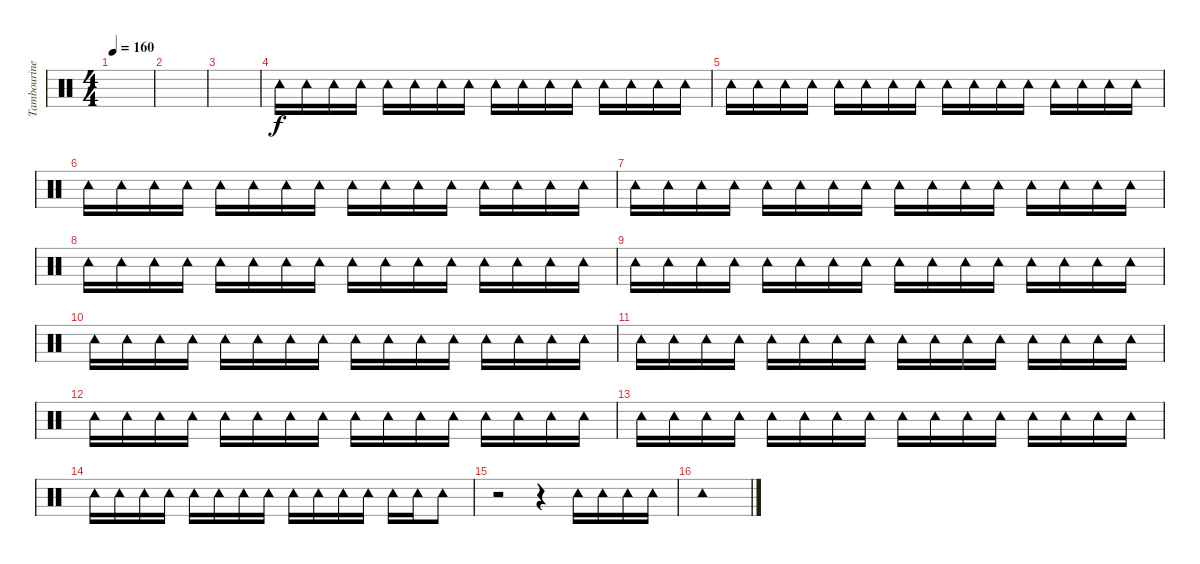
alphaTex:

\track ("Tambourine" "Tambourine") {instrument percussion}
\staff {score}
\articulation defaults
\ts (4 4)
\tempo 160
\clef neutral
\ks c
|
|
|
"Tambourine (hit)".16 "Tambourine (hit)".16 "Tambourine (hit)".16 "Tambourine (hit)".16 "Tambourine (hit)".16 "Tambourine (hit)".16 "Tambourine (hit)".16 "Tambourine (hit)".16 "Tambourine (hit)".16 "Tambourine (hit)".16 "Tambourine (hit)".16 "Tambourine (hit)".16 "Tambourine (hit)".16 "Tambourine (hit)".16 "Tambourine (hit)".16 "Tambourine (hit)".16 |
"Tambourine (hit)".16 "Tambourine (hit)".16 "Tambourine (hit)".16 "Tambourine (hit)".16 "Tambourine (hit)".16 "Tambourine (hit)".16 "Tambourine (hit)".16 "Tambourine (hit)".16 "Tambourine (hit)".16 "Tambourine (hit)".16 "Tambourine (hit)".16 "Tambourine (hit)".16 "Tambourine (hit)".16 "Tambourine (hit)".16 "Tambourine (hit)".16 "Tambourine (hit)".16 |
"Tambourine (hit)".16 "Tambourine (hit)".16 "Tambourine (hit)".16 "Tambourine (hit)".16 "Tambourine (hit)".16 "Tambourine (hit)".16 "Tambourine (hit)".16 "Tambourine (hit)".16 "Tambourine (hit)".16 "Tambourine (hit)".16 "Tambourine (hit)".16 "Tambourine (hit)".16 "Tambourine (hit)".16 "Tambourine (hit)".16 "Tambourine (hit)".16 "Tambourine (hit)".16 |
"Tambourine (hit)".16 "Tambourine (hit)".16 "Tambourine (hit)".16 "Tambourine (hit)".16 "Tambourine (hit)".16 "Tambourine (hit)".16 "Tambourine (hit)".16 "Tambourine (hit)".16 "Tambourine (hit)".16 "Tambourine (hit)".16 "Tambourine (hit)".16 "Tambourine (hit)".16 "Tambourine (hit)".16 "Tambourine (hit)".16 "Tambourine (hit)".16 "Tambourine (hit)".16 |
"Tambourine (hit)".16 "Tambourine (hit)".16 "Tambourine (hit)".16 "Tambourine (hit)".16 "Tambourine (hit)".16 "Tambourine (hit)".16 "Tambourine (hit)".16 "Tambourine (hit)".16 "Tambourine (hit)".16 "Tambourine (hit)".16 "Tambourine (hit)".16 "Tambourine (hit)".16 "Tambourine (hit)".16 "Tambourine (hit)".16 "Tambourine (hit)".16 "Tambourine (hit)".16 |
"Tambourine (hit)".16 "Tambourine (hit)".16 "Tambourine (hit)".16 "Tambourine (hit)".16 "Tambourine (hit)".16 "Tambourine (hit)".16 "Tambourine (hit)".16 "Tambourine (hit)".16 "Tambourine (hit)".16 "Tambourine (hit)".16 "Tambourine (hit)".16 "Tambourine (hit)".16 "Tambourine (hit)".16 "Tambourine (hit)".16 "Tambourine (hit)".16 "Tambourine (hit)".16 |
"Tambourine (hit)".16 "Tambourine (hit)".16 "Tambourine (hit)".16 "Tambourine (hit)".16 "Tambourine (hit)".16 "Tambourine (hit)".16 "Tambourine (hit)".16 "Tambourine (hit)".16 "Tambourine (hit)".16 "Tambourine (hit)".16 "Tambourine (hit)".16 "Tambourine (hit)".16 "Tambourine (hit)".16 "Tambourine (hit)".16 "Tambourine (hit)".16 "Tambourine (hit)".16 |
"Tambourine (hit)".16 "Tambourine (hit)".16 "Tambourine (hit)".16 "Tambourine (hit)".16 "Tambourine (hit)".16 "Tambourine (hit)".16 "Tambourine (hit)".16 "Tambourine (hit)".16 "Tambourine (hit)".16 "Tambourine (hit)".16 "Tambourine (hit)".16 "Tambourine (hit)".16 "Tambourine (hit)".16 "Tambourine (hit)".16 "Tambourine (hit)".16 "Tambourine (hit)".16 |
"Tambourine (hit)".16 "Tambourine (hit)".16 "Tambourine (hit)".16 "Tambourine (hit)".16 "Tambourine (hit)".16 "Tambourine (hit)".16 "Tambourine (hit)".16 "Tambourine (hit)".16 "Tambourine (hit)".16 "Tambourine (hit)".16 "Tambourine (hit)".16 "Tambourine (hit)".16 "Tambourine (hit)".16 "Tambourine (hit)".16 "Tambourine (hit)".16 "Tambourine (hit)".16 |
"Tambourine (hit)".16 "Tambourine (hit)".16 "Tambourine (hit)".16 "Tambourine (hit)".16 "Tambourine (hit)".16 "Tambourine (hit)".16 "Tambourine (hit)".16 "Tambourine (hit)".16 "Tambourine (hit)".16 "Tambourine (hit)".16 "Tambourine (hit)".16 "Tambourine (hit)".16 "Tambourine (hit)".16 "Tambourine (hit)".16 "Tambourine (hit)".16 "Tambourine (hit)".16 |
"Tambourine (hit)".16 "Tambourine (hit)".16 "Tambourine (hit)".16 "Tambourine (hit)".16 "Tambourine (hit)".16 "Tambourine (hit)".16 "Tambourine (hit)".16 "Tambourine (hit)".16 "Tambourine (hit)".16 "Tambourine (hit)".16 "Tambourine (hit)".16 "Tambourine (hit)".16 "Tambourine (hit)".16 "Tambourine (hit)".16 "Tambourine (hit)".8 |
r.2 r.4 "Tambourine (hit)".16 "Tambourine (hit)".16 "Tambourine (hit)".16 "Tambourine (hit)".16 |
"Tambourine (hit)".1
